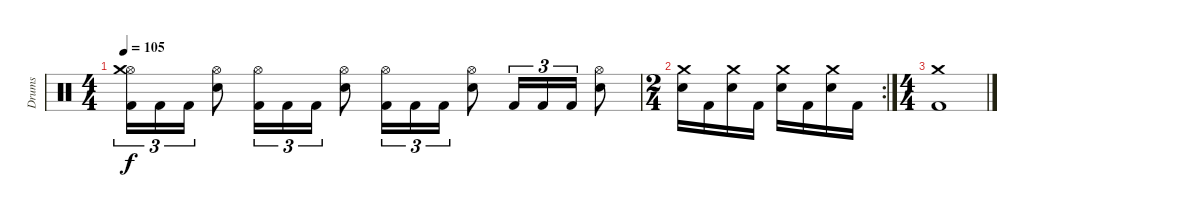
\track ("Drums" "Drums") {instrument percussion}
\staff {score}
\articulation defaults
\ts (4 4)
\tempo 105
\clef neutral
\ks c
("Kick (hit) 2" "Hi-Hat (open)" "Crash medium (hit)").16{tu (3 2) dy f} "Kick (hit) 2".16{tu (3 2)} "Kick (hit) 2".16{tu (3 2)} ("Snare (hit) 2" "Hi-Hat (open)").8 ("Kick (hit) 2" "Hi-Hat (open)").16{tu (3 2)} "Kick (hit) 2".16{tu (3 2)} "Kick (hit) 2".16{tu (3 2)} ("Snare (hit) 2" "Hi-Hat (open)").8 ("Kick (hit) 2" "Hi-Hat (open)").16{tu (3 2)} "Kick (hit) 2".16{tu (3 2)} "Kick (hit) 2".16{tu (3 2)} ("Snare (hit) 2" "Hi-Hat (open)").8 "Kick (hit) 2".16{tu (3 2)} "Kick (hit) 2".16{tu (3 2)} "Kick (hit) 2".16{tu (3 2)} ("Snare (hit) 2" "Hi-Hat (open)").8 |
\rc 2
\ts (2 4)
("Snare (hit) 2" "Crash medium (hit)").16 "Kick (hit) 2".16 ("Snare (hit) 2" "Crash medium (hit)").16 "Kick (hit) 2".16 ("Snare (hit) 2" "Crash medium (hit)").16 "Kick (hit) 2".16 ("Snare (hit) 2" "Crash medium (hit)").16 "Kick (hit) 2".16 |
\ts (4 4)
("Kick (hit) 2" "Crash medium (hit)").1
